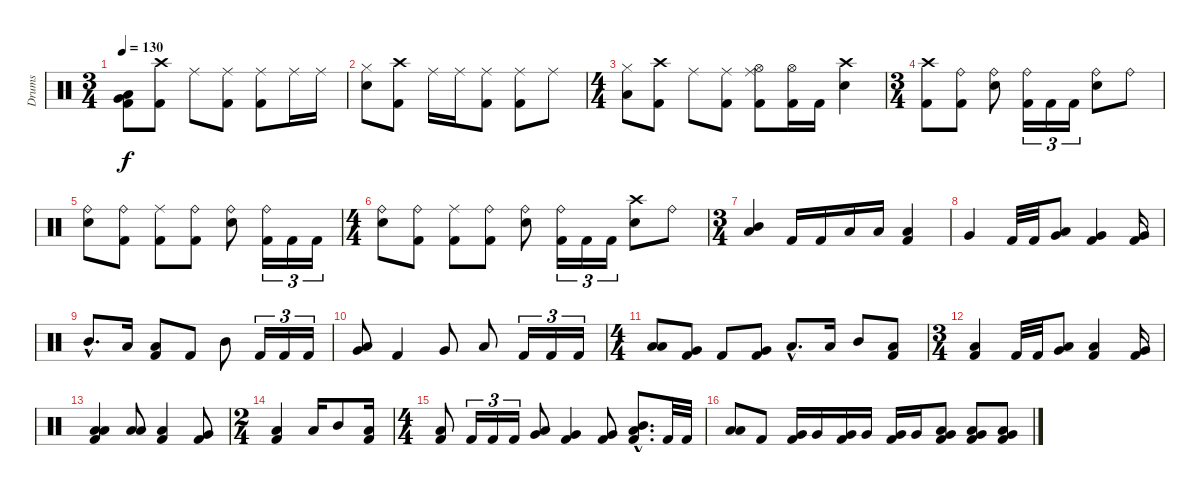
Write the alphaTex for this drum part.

\track ("Drums" "Drums") {instrument percussion}
\staff {score}
\articulation defaults
\ts (3 4)
\tempo 130
\clef neutral
\ks c
("Very Low Tom (hit)" "Low Floor Tom (hit)" "Kick (hit) 2").8{dy f} ("Crash high (hit)" "Kick (hit) 2").8 "Ride (middle)".8 ("Ride (middle)" "Kick (hit) 2").8 ("Ride (middle)" "Kick (hit) 2").8 "Ride (middle)".16 "Ride (middle)".16 |
("Snare (hit) 2" "Hi-Hat (closed)").8 ("Crash high (hit)" "Kick (hit) 2").8 "Ride (middle)".16 "Ride (middle)".16 ("Ride (middle)" "Kick (hit) 2").8 ("Ride (middle)" "Kick (hit) 2").8 "Ride (middle)".8 |
\ts (4 4)
("Low Floor Tom (hit)" "Hi-Hat (closed)").8 ("Crash high (hit)" "Kick (hit) 2").8 "Ride (middle)".8 ("Ride (middle)" "Kick (hit) 2").8 ("Ride (middle)" "Hi-Hat (open)" "Kick (hit) 2").8 ("Hi-Hat (open)" "Kick (hit) 2").16 "Kick (hit) 2".16 ("Crash high (hit)" "Snare (hit) 2").4 |
\ts (3 4)
("Crash high (hit)" "Kick (hit) 2").8 ("Ride (bell)" "Kick (hit) 2").8 ("Ride (bell)" "Snare (hit) 2").8 ("Ride (bell)" "Kick (hit) 2").16{tu (3 2)} "Kick (hit) 2".16{tu (3 2)} "Kick (hit) 2".16{tu (3 2)} ("Ride (bell)" "Snare (hit) 2").8 "Ride (bell)".8 |
("Ride (bell)" "Snare (hit) 2").8 ("Ride (bell)" "Kick (hit) 2").8 ("Ride (middle)" "Kick (hit) 2").8 ("Ride (bell)" "Kick (hit) 2").8 ("Ride (bell)" "Snare (hit) 2").8 ("Ride (bell)" "Kick (hit) 2").16{tu (3 2)} "Kick (hit) 2".16{tu (3 2)} "Kick (hit) 2".16{tu (3 2)} |
\ts (4 4)
("Ride (bell)" "Snare (hit) 2").8 ("Ride (bell)" "Kick (hit) 2").8 ("Ride (middle)" "Kick (hit) 2").8 ("Ride (bell)" "Kick (hit) 2").8 ("Ride (bell)" "Snare (hit) 2").8 ("Ride (bell)" "Kick (hit) 2").16{tu (3 2)} "Kick (hit) 2".16{tu (3 2)} "Kick (hit) 2".16{tu (3 2)} ("Crash high (hit)" "Snare (hit) 2").8 "Ride (bell)".8 |
\ts (3 4)
("Mid Tom (hit)" "Low Floor Tom (hit)").4 "Kick (hit) 2".16 "Kick (hit) 2".16 "Low Tom (hit)".16 "Low Tom (hit)".16 ("Low Floor Tom (hit)" "Kick (hit) 2").4 |
"Very Low Tom (hit)".4 "Kick (hit) 2".32 "Kick (hit) 2".32 ("Low Floor Tom (hit)" "Very Low Tom (hit)").8 ("Very Low Tom (hit)" "Kick (hit) 2").4 ("Very Low Tom (hit)" "Kick (hit) 2").16 |
"Mid Tom (hit)"{hac}.8{d} "Low Tom (hit)".16 ("Low Floor Tom (hit)" "Kick (hit) 2").8 "Kick (hit) 2".8 "Mid Tom (hit)".8 "Kick (hit) 2".16{tu (3 2)} "Kick (hit) 2".16{tu (3 2)} "Kick (hit) 2".16{tu (3 2)} |
("Low Floor Tom (hit)" "Very Low Tom (hit)").8 "Kick (hit) 2".4 "Very Low Tom (hit)".8 "Low Floor Tom (hit)".8 "Kick (hit) 2".16{tu (3 2)} "Kick (hit) 2".16{tu (3 2)} "Kick (hit) 2".16{tu (3 2)} |
\ts (4 4)
("Low Tom (hit)" "Low Floor Tom (hit)").8 ("Very Low Tom (hit)" "Kick (hit) 2").8 "Kick (hit) 2".8 ("Very Low Tom (hit)" "Kick (hit) 2").8 "Low Floor Tom (hit)"{hac}.8{d} "Low Tom (hit)".16 "Mid Tom (hit)".8 ("Low Floor Tom (hit)" "Kick (hit) 2").8 |
\ts (3 4)
("Low Floor Tom (hit)" "Kick (hit) 2").4 "Kick (hit) 2".32 "Kick (hit) 2".32 ("Low Floor Tom (hit)" "Very Low Tom (hit)").8 ("Low Floor Tom (hit)" "Kick (hit) 2").4 ("Very Low Tom (hit)" "Kick (hit) 2").16 |
("Low Tom (hit)" "Low Floor Tom (hit)" "Kick (hit) 2").4 ("Low Tom (hit)" "Low Floor Tom (hit)").8 ("Low Tom (hit)" "Kick (hit) 2").4 ("Very Low Tom (hit)" "Kick (hit) 2").8 |
\ts (2 4)
("Low Floor Tom (hit)" "Kick (hit) 2").4 "Low Tom (hit)".16 "Mid Tom (hit)".8 ("Low Floor Tom (hit)" "Kick (hit) 2").16 |
\ts (4 4)
("Low Floor Tom (hit)" "Kick (hit) 2").8 "Kick (hit) 2".16{tu (3 2)} "Kick (hit) 2".16{tu (3 2)} "Kick (hit) 2".16{tu (3 2)} ("Low Floor Tom (hit)" "Very Low Tom (hit)").8 ("Very Low Tom (hit)" "Kick (hit) 2").4 ("Very Low Tom (hit)" "Kick (hit) 2").8 ("Mid Tom (hit)"{hac} "Low Floor Tom (hit)"{hac} "Kick (hit) 2"{hac}).8{d} "Kick (hit) 2".32 "Kick (hit) 2".32 |
("Low Tom (hit)" "Low Floor Tom (hit)").8 "Kick (hit) 2".8{volume 5} ("Very Low Tom (hit)" "Kick (hit) 2").16{volume 16} "Very Low Tom (hit)".16 ("Very Low Tom (hit)" "Kick (hit) 2").16 "Very Low Tom (hit)".16 ("Very Low Tom (hit)" "Kick (hit) 2").16 "Very Low Tom (hit)".16 ("Low Floor Tom (hit)" "Very Low Tom (hit)" "Kick (hit) 2").8 ("Low Floor Tom (hit)" "Very Low Tom (hit)" "Kick (hit) 2").8 ("Low Tom (hit)" "Very Low Tom (hit)" "Kick (hit) 2").8
